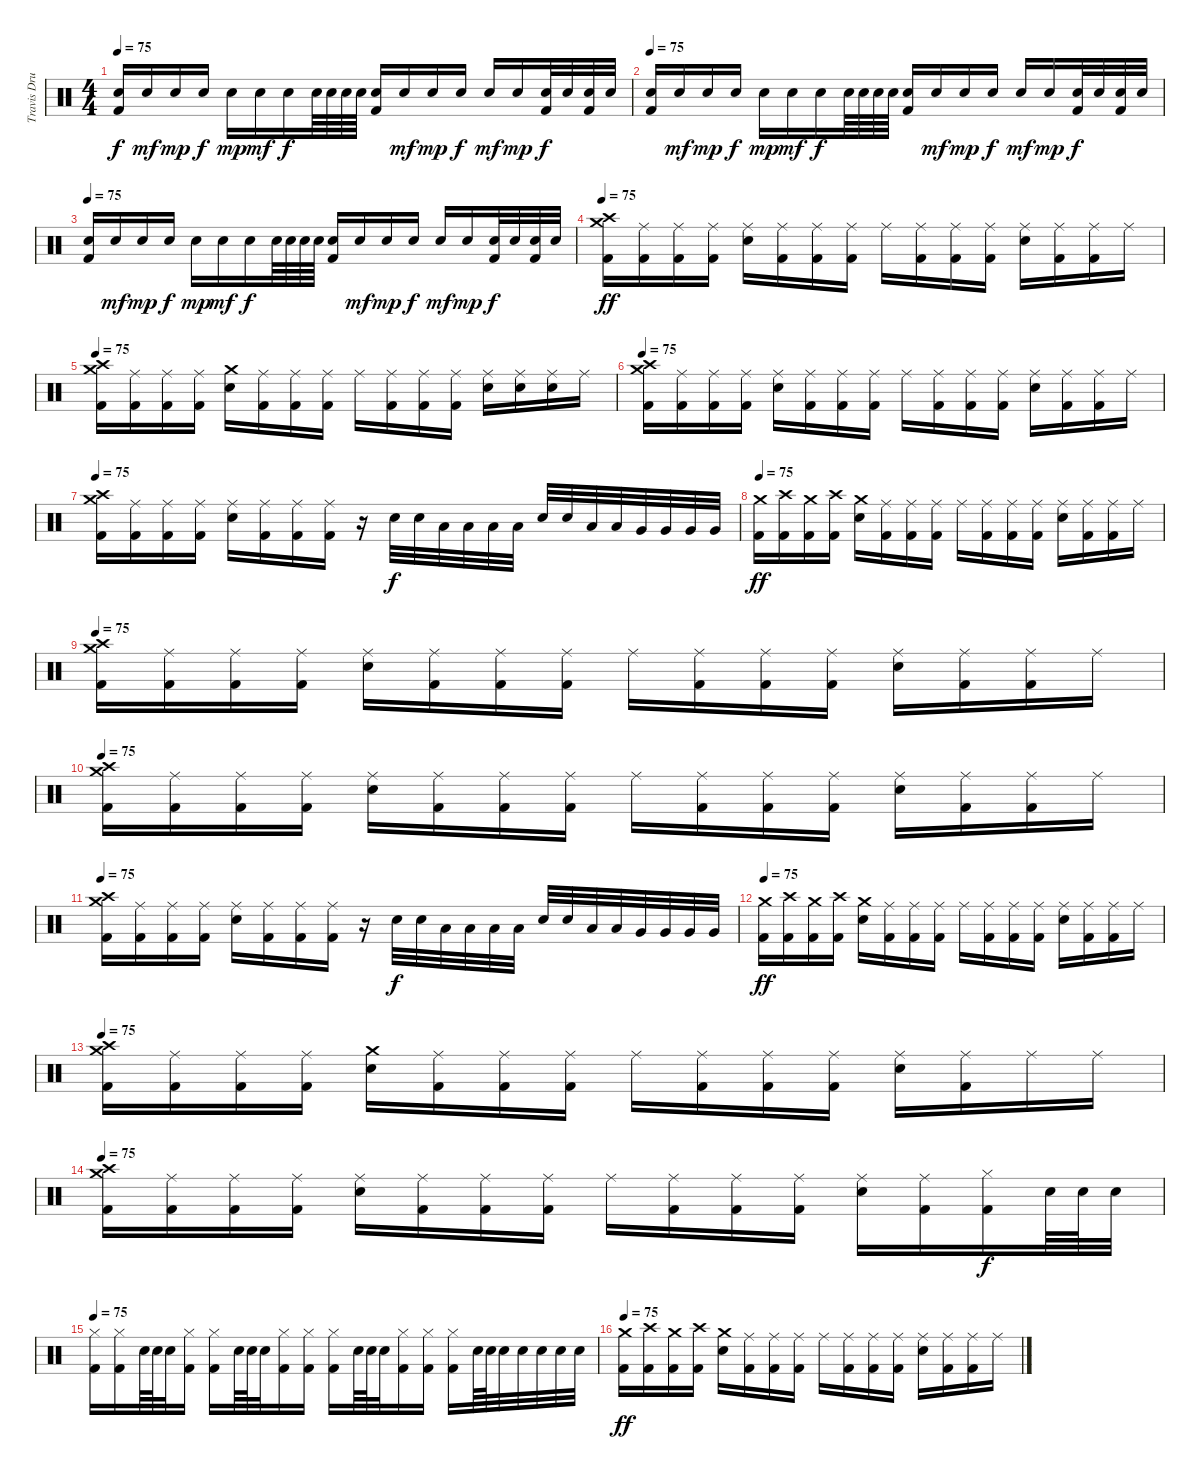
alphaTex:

\track ("Travis Drums" "Travis Dru") {instrument percussion}
\staff {score}
\articulation defaults
\ts (4 4)
\tempo 75
\clef neutral
\ks c
("Electric Snare (hit)" "Kick (hit) 2").16{dy f} "Electric Snare (hit)".16{dy mf} "Electric Snare (hit)".16{dy mp} "Electric Snare (hit)".16{dy f} "Electric Snare (hit)".16{dy mp} "Electric Snare (hit)".16{dy mf} "Electric Snare (hit)".16{dy f} "Electric Snare (hit)".64 "Electric Snare (hit)".64 "Electric Snare (hit)".64 "Electric Snare (hit)".64 ("Electric Snare (hit)" "Kick (hit) 2").16 "Electric Snare (hit)".16{dy mf} "Electric Snare (hit)".16{dy mp} "Electric Snare (hit)".16{dy f} "Electric Snare (hit)".16{dy mf} "Electric Snare (hit)".16{dy mp} ("Electric Snare (hit)" "Kick (hit) 2").32{dy f} "Electric Snare (hit)".32 ("Electric Snare (hit)" "Kick (hit) 2").32 "Electric Snare (hit)".32 |
\tempo 75
("Electric Snare (hit)" "Kick (hit) 2").16 "Electric Snare (hit)".16{dy mf} "Electric Snare (hit)".16{dy mp} "Electric Snare (hit)".16{dy f} "Electric Snare (hit)".16{dy mp} "Electric Snare (hit)".16{dy mf} "Electric Snare (hit)".16{dy f} "Electric Snare (hit)".64 "Electric Snare (hit)".64 "Electric Snare (hit)".64 "Electric Snare (hit)".64 ("Electric Snare (hit)" "Kick (hit) 2").16 "Electric Snare (hit)".16{dy mf} "Electric Snare (hit)".16{dy mp} "Electric Snare (hit)".16{dy f} "Electric Snare (hit)".16{dy mf} "Electric Snare (hit)".16{dy mp} ("Electric Snare (hit)" "Kick (hit) 2").32{dy f} "Electric Snare (hit)".32 ("Electric Snare (hit)" "Kick (hit) 2").32 "Electric Snare (hit)".32 |
\tempo 75
("Electric Snare (hit)" "Kick (hit) 2").16 "Electric Snare (hit)".16{dy mf} "Electric Snare (hit)".16{dy mp} "Electric Snare (hit)".16{dy f} "Electric Snare (hit)".16{dy mp} "Electric Snare (hit)".16{dy mf} "Electric Snare (hit)".16{dy f} "Electric Snare (hit)".64 "Electric Snare (hit)".64 "Electric Snare (hit)".64 "Electric Snare (hit)".64 ("Electric Snare (hit)" "Kick (hit) 2").16 "Electric Snare (hit)".16{dy mf} "Electric Snare (hit)".16{dy mp} "Electric Snare (hit)".16{dy f} "Electric Snare (hit)".16{dy mf} "Electric Snare (hit)".16{dy mp} ("Electric Snare (hit)" "Kick (hit) 2").32{dy f} "Electric Snare (hit)".32 ("Electric Snare (hit)" "Kick (hit) 2").32 "Electric Snare (hit)".32 |
\tempo 75
("Crash medium (hit)" "Crash high (hit)" "Kick (hit) 2").16{dy ff} ("Ride (middle)" "Kick (hit) 2").16 ("Ride (middle)" "Kick (hit) 2").16 ("Ride (middle)" "Kick (hit) 2").16 ("Ride (middle)" "Electric Snare (hit)").16 ("Ride (middle)" "Kick (hit) 2").16 ("Ride (middle)" "Kick (hit) 2").16 ("Ride (middle)" "Kick (hit) 2").16 "Ride (middle)".16 ("Ride (middle)" "Kick (hit) 2").16 ("Ride (middle)" "Kick (hit) 2").16 ("Ride (middle)" "Kick (hit) 2").16 ("Ride (middle)" "Electric Snare (hit)").16 ("Ride (middle)" "Kick (hit) 2").16 ("Ride (middle)" "Kick (hit) 2").16 "Ride (middle)".16 |
\tempo 75
("Crash medium (hit)" "Crash high (hit)" "Kick (hit) 2").16 ("Ride (middle)" "Kick (hit) 2").16 ("Ride (middle)" "Kick (hit) 2").16 ("Ride (middle)" "Kick (hit) 2").16 ("Crash medium (hit)" "Electric Snare (hit)").16 ("Ride (middle)" "Kick (hit) 2").16 ("Ride (middle)" "Kick (hit) 2").16 ("Ride (middle)" "Kick (hit) 2").16 "Ride (middle)".16 ("Ride (middle)" "Kick (hit) 2").16 ("Ride (middle)" "Kick (hit) 2").16 ("Ride (middle)" "Kick (hit) 2").16 ("Ride (middle)" "Electric Snare (hit)").16 ("Ride (middle)" "Electric Snare (hit)").16 ("Ride (middle)" "Electric Snare (hit)").16 "Ride (middle)".16 |
\tempo 75
("Crash medium (hit)" "Crash high (hit)" "Kick (hit) 2").16 ("Ride (middle)" "Kick (hit) 2").16 ("Ride (middle)" "Kick (hit) 2").16 ("Ride (middle)" "Kick (hit) 2").16 ("Ride (middle)" "Electric Snare (hit)").16 ("Ride (middle)" "Kick (hit) 2").16 ("Ride (middle)" "Kick (hit) 2").16 ("Ride (middle)" "Kick (hit) 2").16 "Ride (middle)".16 ("Ride (middle)" "Kick (hit) 2").16 ("Ride (middle)" "Kick (hit) 2").16 ("Ride (middle)" "Kick (hit) 2").16 ("Ride (middle)" "Electric Snare (hit)").16 ("Ride (middle)" "Kick (hit) 2").16 ("Ride (middle)" "Kick (hit) 2").16 "Ride (middle)".16 |
\tempo 75
("Crash medium (hit)" "Crash high (hit)" "Kick (hit) 2").16 ("Ride (middle)" "Kick (hit) 2").16 ("Ride (middle)" "Kick (hit) 2").16 ("Ride (middle)" "Kick (hit) 2").16 ("Ride (middle)" "Electric Snare (hit)").16 ("Ride (middle)" "Kick (hit) 2").16 ("Ride (middle)" "Kick (hit) 2").16 ("Ride (middle)" "Kick (hit) 2").16 r.16 "Electric Snare (hit)".32{dy f} "Electric Snare (hit)".32 "Low Tom (hit)".32 "Low Tom (hit)".32 "Low Tom (hit)".32 "Low Tom (hit)".32 "Electric Snare (hit)".32 "Electric Snare (hit)".32 "Low Tom (hit)".32 "Low Tom (hit)".32 "Very Low Tom (hit)".32 "Very Low Tom (hit)".32 "Very Low Tom (hit)".32 "Very Low Tom (hit)".32 |
\tempo 75
("Crash medium (hit)" "Kick (hit) 2").16{dy ff} ("Crash high (hit)" "Kick (hit) 2").16 ("Crash medium (hit)" "Kick (hit) 2").16 ("Crash high (hit)" "Kick (hit) 2").16 ("Crash medium (hit)" "Electric Snare (hit)").16 ("Ride (middle)" "Kick (hit) 2").16 ("Ride (middle)" "Kick (hit) 2").16 ("Ride (middle)" "Kick (hit) 2").16 "Ride (middle)".16 ("Ride (middle)" "Kick (hit) 2").16 ("Ride (middle)" "Kick (hit) 2").16 ("Ride (middle)" "Kick (hit) 2").16 ("Ride (middle)" "Electric Snare (hit)").16 ("Ride (middle)" "Kick (hit) 2").16 ("Ride (middle)" "Kick (hit) 2").16 "Ride (middle)".16 |
\tempo 75
("Crash medium (hit)" "Crash high (hit)" "Kick (hit) 2").16 ("Ride (middle)" "Kick (hit) 2").16 ("Ride (middle)" "Kick (hit) 2").16 ("Ride (middle)" "Kick (hit) 2").16 ("Ride (middle)" "Electric Snare (hit)").16 ("Ride (middle)" "Kick (hit) 2").16 ("Ride (middle)" "Kick (hit) 2").16 ("Ride (middle)" "Kick (hit) 2").16 "Ride (middle)".16 ("Ride (middle)" "Kick (hit) 2").16 ("Ride (middle)" "Kick (hit) 2").16 ("Ride (middle)" "Kick (hit) 2").16 ("Ride (middle)" "Electric Snare (hit)").16 ("Ride (middle)" "Kick (hit) 2").16 ("Ride (middle)" "Kick (hit) 2").16 "Ride (middle)".16 |
\tempo 75
("Crash medium (hit)" "Crash high (hit)" "Kick (hit) 2").16 ("Ride (middle)" "Kick (hit) 2").16 ("Ride (middle)" "Kick (hit) 2").16 ("Ride (middle)" "Kick (hit) 2").16 ("Ride (middle)" "Electric Snare (hit)").16 ("Ride (middle)" "Kick (hit) 2").16 ("Ride (middle)" "Kick (hit) 2").16 ("Ride (middle)" "Kick (hit) 2").16 "Ride (middle)".16 ("Ride (middle)" "Kick (hit) 2").16 ("Ride (middle)" "Kick (hit) 2").16 ("Ride (middle)" "Kick (hit) 2").16 ("Ride (middle)" "Electric Snare (hit)").16 ("Ride (middle)" "Kick (hit) 2").16 ("Ride (middle)" "Kick (hit) 2").16 "Ride (middle)".16 |
\tempo 75
("Crash medium (hit)" "Crash high (hit)" "Kick (hit) 2").16 ("Ride (middle)" "Kick (hit) 2").16 ("Ride (middle)" "Kick (hit) 2").16 ("Ride (middle)" "Kick (hit) 2").16 ("Ride (middle)" "Electric Snare (hit)").16 ("Ride (middle)" "Kick (hit) 2").16 ("Ride (middle)" "Kick (hit) 2").16 ("Ride (middle)" "Kick (hit) 2").16 r.16 "Electric Snare (hit)".32{dy f} "Electric Snare (hit)".32 "Low Tom (hit)".32 "Low Tom (hit)".32 "Low Tom (hit)".32 "Low Tom (hit)".32 "Electric Snare (hit)".32 "Electric Snare (hit)".32 "Low Tom (hit)".32 "Low Tom (hit)".32 "Very Low Tom (hit)".32 "Very Low Tom (hit)".32 "Very Low Tom (hit)".32 "Very Low Tom (hit)".32 |
\tempo 75
("Crash medium (hit)" "Kick (hit) 2").16{dy ff} ("Crash high (hit)" "Kick (hit) 2").16 ("Crash medium (hit)" "Kick (hit) 2").16 ("Crash high (hit)" "Kick (hit) 2").16 ("Crash medium (hit)" "Electric Snare (hit)").16 ("Ride (middle)" "Kick (hit) 2").16 ("Ride (middle)" "Kick (hit) 2").16 ("Ride (middle)" "Kick (hit) 2").16 "Ride (middle)".16 ("Ride (middle)" "Kick (hit) 2").16 ("Ride (middle)" "Kick (hit) 2").16 ("Ride (middle)" "Kick (hit) 2").16 ("Ride (middle)" "Electric Snare (hit)").16 ("Ride (middle)" "Kick (hit) 2").16 ("Ride (middle)" "Kick (hit) 2").16 "Ride (middle)".16 |
\tempo 75
("Crash medium (hit)" "Crash high (hit)" "Kick (hit) 2").16 ("Ride (middle)" "Kick (hit) 2").16 ("Ride (middle)" "Kick (hit) 2").16 ("Ride (middle)" "Kick (hit) 2").16 ("Crash medium (hit)" "Electric Snare (hit)").16 ("Ride (middle)" "Kick (hit) 2").16 ("Ride (middle)" "Kick (hit) 2").16 ("Ride (middle)" "Kick (hit) 2").16 "Ride (middle)".16 ("Ride (middle)" "Kick (hit) 2").16 ("Ride (middle)" "Kick (hit) 2").16 ("Ride (middle)" "Kick (hit) 2").16 ("Ride (middle)" "Electric Snare (hit)").16 ("Ride (middle)" "Kick (hit) 2").16 "Ride (middle)".16 "Ride (middle)".16 |
\tempo 75
("Crash medium (hit)" "Crash high (hit)" "Kick (hit) 2").16 ("Ride (middle)" "Kick (hit) 2").16 ("Ride (middle)" "Kick (hit) 2").16 ("Ride (middle)" "Kick (hit) 2").16 ("Ride (middle)" "Electric Snare (hit)").16 ("Ride (middle)" "Kick (hit) 2").16 ("Ride (middle)" "Kick (hit) 2").16 ("Ride (middle)" "Kick (hit) 2").16 "Ride (middle)".16 ("Ride (middle)" "Kick (hit) 2").16 ("Ride (middle)" "Kick (hit) 2").16 ("Ride (middle)" "Kick (hit) 2").16 ("Ride (middle)" "Electric Snare (hit)").16 ("Ride (middle)" "Kick (hit) 2").16 ("Hi-Hat (closed)" "Kick (hit) 2").16{dy f} "Electric Snare (hit)".64 "Electric Snare (hit)".64 "Electric Snare (hit)".32 |
\tempo 75
("Hi-Hat (closed)" "Kick (hit) 2").16 ("Hi-Hat (closed)" "Kick (hit) 2").16 "Electric Snare (hit)".64 "Electric Snare (hit)".64 "Electric Snare (hit)".32 ("Hi-Hat (closed)" "Kick (hit) 2").16 ("Hi-Hat (closed)" "Kick (hit) 2").16 "Electric Snare (hit)".64 "Electric Snare (hit)".64 "Electric Snare (hit)".32 ("Hi-Hat (closed)" "Kick (hit) 2").16 ("Hi-Hat (closed)" "Kick (hit) 2").16 ("Hi-Hat (closed)" "Kick (hit) 2").16 "Electric Snare (hit)".64 "Electric Snare (hit)".64 "Electric Snare (hit)".32 ("Hi-Hat (closed)" "Kick (hit) 2").16 ("Hi-Hat (closed)" "Kick (hit) 2").16 ("Hi-Hat (closed)" "Kick (hit) 2").16 "Electric Snare (hit)".64 "Electric Snare (hit)".64 "Electric Snare (hit)".32 "Electric Snare (hit)".32 "Electric Snare (hit)".32 "Electric Snare (hit)".32 "Electric Snare (hit)".32 |
\tempo 75
("Crash medium (hit)" "Kick (hit) 2").16{dy ff} ("Crash high (hit)" "Kick (hit) 2").16 ("Crash medium (hit)" "Kick (hit) 2").16 ("Crash high (hit)" "Kick (hit) 2").16 ("Crash medium (hit)" "Electric Snare (hit)").16 ("Ride (middle)" "Kick (hit) 2").16 ("Ride (middle)" "Kick (hit) 2").16 ("Ride (middle)" "Kick (hit) 2").16 "Ride (middle)".16 ("Ride (middle)" "Kick (hit) 2").16 ("Ride (middle)" "Kick (hit) 2").16 ("Ride (middle)" "Kick (hit) 2").16 ("Ride (middle)" "Electric Snare (hit)").16 ("Ride (middle)" "Kick (hit) 2").16 ("Ride (middle)" "Kick (hit) 2").16 "Ride (middle)".16
